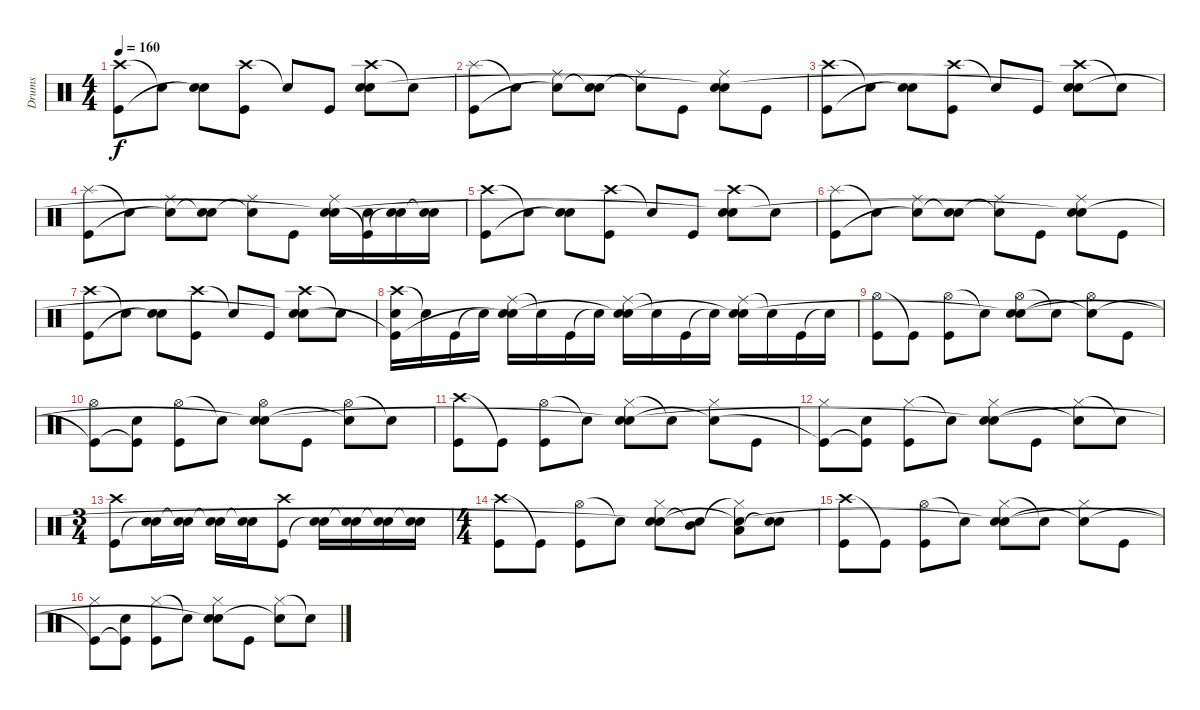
\track ("Drums" "Drums") {instrument percussion}
\staff {score}
\articulation defaults
\ts (4 4)
\tempo 160
\clef neutral
\ks c
("Crash high (hit)" "Kick (hit)").8{dy f} "Snare (hit)"{t}.8 ("Electric Snare (hit)" "Snare (hit)"{t}).8 ("Crash high (hit)" "Kick (hit)").8 "Snare (hit)"{t}.8 "Kick (hit)".8 ("Crash high (hit)" "Electric Snare (hit)" "Snare (hit)"{t}).8 "Snare (hit)"{t}.8 |
("Splash (hit)" "Kick (hit)").8 "Snare (hit)"{t}.8 ("Ride (middle)" "Snare (hit)"{t}).8 ("Electric Snare (hit)" "Snare (hit)"{t}).8 ("Ride (middle)" "Snare (hit)"{t}).8 "Kick (hit)".8 ("Ride (middle)" "Electric Snare (hit)" "Snare (hit)"{t}).8 "Kick (hit)".8 |
("Crash high (hit)" "Kick (hit)").8 "Snare (hit)"{t}.8 ("Electric Snare (hit)" "Snare (hit)"{t}).8 ("Crash high (hit)" "Kick (hit)").8 "Snare (hit)"{t}.8 "Kick (hit)".8 ("Crash high (hit)" "Electric Snare (hit)" "Snare (hit)"{t}).8 "Snare (hit)"{t}.8 |
("Splash (hit)" "Kick (hit)").8 "Snare (hit)"{t}.8 ("Ride (middle)" "Snare (hit)"{t}).8 ("Electric Snare (hit)" "Snare (hit)"{t}).8 ("Ride (middle)" "Snare (hit)"{t}).8 "Kick (hit)".8 ("Ride (middle)" "Electric Snare (hit)" "Snare (hit)"{t}).16 ("Electric Snare (hit)" "Kick (hit)"{t}).16 ("Electric Snare (hit)" "Snare (hit)"{t}).16 ("Electric Snare (hit)" "Snare (hit)"{t}).16 |
("Crash high (hit)" "Kick (hit)").8 "Snare (hit)"{t}.8 ("Electric Snare (hit)" "Snare (hit)"{t}).8 ("Crash high (hit)" "Kick (hit)").8 "Snare (hit)"{t}.8 "Kick (hit)".8 ("Crash high (hit)" "Electric Snare (hit)" "Snare (hit)"{t}).8 "Snare (hit)"{t}.8 |
("Splash (hit)" "Kick (hit)").8 "Snare (hit)"{t}.8 ("Ride (middle)" "Snare (hit)"{t}).8 ("Electric Snare (hit)" "Snare (hit)"{t}).8 ("Ride (middle)" "Snare (hit)"{t}).8 "Kick (hit)".8 ("Ride (middle)" "Electric Snare (hit)" "Snare (hit)"{t}).8 "Kick (hit)".8 |
("Crash high (hit)" "Kick (hit)").8 "Snare (hit)"{t}.8 ("Electric Snare (hit)" "Snare (hit)"{t}).8 ("Crash high (hit)" "Kick (hit)").8 "Snare (hit)"{t}.8 "Kick (hit)".8 ("Crash high (hit)" "Electric Snare (hit)" "Snare (hit)"{t}).8 "Snare (hit)"{t}.8 |
("Crash high (hit)" "Electric Snare (hit)" "Kick (hit)"{t}).16 "Snare (hit)"{t}.16 "Kick (hit)".16 "Snare (hit)"{t}.16 ("Ride (middle)" "Electric Snare (hit)" "Snare (hit)"{t}).16 "Snare (hit)"{t}.16 "Kick (hit)".16 "Snare (hit)"{t}.16 ("Ride (middle)" "Electric Snare (hit)" "Snare (hit)"{t}).16 "Snare (hit)"{t}.16 "Kick (hit)".16 "Snare (hit)"{t}.16 ("Ride (middle)" "Electric Snare (hit)" "Snare (hit)"{t}).16 "Snare (hit)"{t}.16 "Kick (hit)".16 "Snare (hit)"{t}.16 |
("Hi-Hat (open)" "Kick (hit)").8 "Kick (hit)"{t}.8 ("Hi-Hat (open)" "Kick (hit)").8 "Snare (hit)"{t}.8 ("Hi-Hat (open)" "Electric Snare (hit)" "Snare (hit)"{t}).8 "Snare (hit)"{t}.8 ("Hi-Hat (open)" "Snare (hit)"{t}).8 "Kick (hit)".8 |
("Hi-Hat (open)" "Kick (hit)"{t}).8 ("Electric Snare (hit)" "Kick (hit)"{t}).8 ("Hi-Hat (open)" "Kick (hit)").8 "Snare (hit)"{t}.8 ("Hi-Hat (open)" "Electric Snare (hit)" "Snare (hit)"{t}).8 "Kick (hit)".8 ("Hi-Hat (open)" "Snare (hit)"{t}).8 "Snare (hit)"{t}.8 |
("Crash high (hit)" "Kick (hit)").8 "Kick (hit)"{t}.8 ("Hi-Hat (open)" "Kick (hit)").8 "Snare (hit)"{t}.8 ("Hi-Hat (closed)" "Electric Snare (hit)" "Snare (hit)"{t}).8 "Snare (hit)"{t}.8 ("Hi-Hat (closed)" "Snare (hit)"{t}).8 "Kick (hit)".8 |
("Hi-Hat (closed)" "Kick (hit)"{t}).8 ("Electric Snare (hit)" "Kick (hit)"{t}).8 ("Hi-Hat (closed)" "Kick (hit)").8 "Snare (hit)"{t}.8 ("Hi-Hat (closed)" "Electric Snare (hit)" "Snare (hit)"{t}).8 "Kick (hit)".8 ("Hi-Hat (closed)" "Snare (hit)"{t}).8 "Snare (hit)"{t}.8 |
\ts (3 4)
("Crash high (hit)" "Kick (hit)").8 ("Snare (hit) 2" "Snare (hit)"{t}).16 ("Snare (hit) 2" "Snare (hit)"{t}).16 ("Snare (hit) 2" "Snare (hit)"{t}).16 ("Snare (hit) 2" "Snare (hit)"{t}).16 ("Crash high (hit)" "Kick (hit)").8 ("Electric Snare (hit)" "Snare (hit)"{t}).16 ("Electric Snare (hit)" "Snare (hit)"{t}).16 ("Electric Snare (hit)" "Snare (hit)"{t}).16 ("Electric Snare (hit)" "Snare (hit)"{t}).16 |
\ts (4 4)
("Crash high (hit)" "Kick (hit)").8 "Kick (hit)"{t}.8 ("Hi-Hat (open)" "Kick (hit)").8 "Snare (hit)"{t}.8 ("Hi-Hat (closed)" "Electric Snare (hit)" "Snare (hit)"{t}).8 ("Mid Tom (hit)" "Snare (hit)"{t}).8 ("Hi-Hat (closed)"{t} "Low Tom (hit)" "Snare (hit)"{t}).8 ("Snare (hit) 2" "Snare (hit)"{t}).8 |
("Crash high (hit)" "Kick (hit)").8 "Kick (hit)"{t}.8 ("Hi-Hat (open)" "Kick (hit)").8 "Snare (hit)"{t}.8 ("Hi-Hat (closed)" "Electric Snare (hit)" "Snare (hit)"{t}).8 "Snare (hit)"{t}.8 ("Hi-Hat (closed)" "Snare (hit)"{t}).8 "Kick (hit)".8 |
("Hi-Hat (closed)" "Kick (hit)"{t}).8 ("Electric Snare (hit)" "Kick (hit)"{t}).8 ("Hi-Hat (closed)" "Kick (hit)").8 "Snare (hit)"{t}.8 ("Hi-Hat (closed)" "Electric Snare (hit)" "Snare (hit)"{t}).8 "Kick (hit)".8 ("Hi-Hat (closed)" "Snare (hit)"{t}).8 "Snare (hit)"{t}.8
